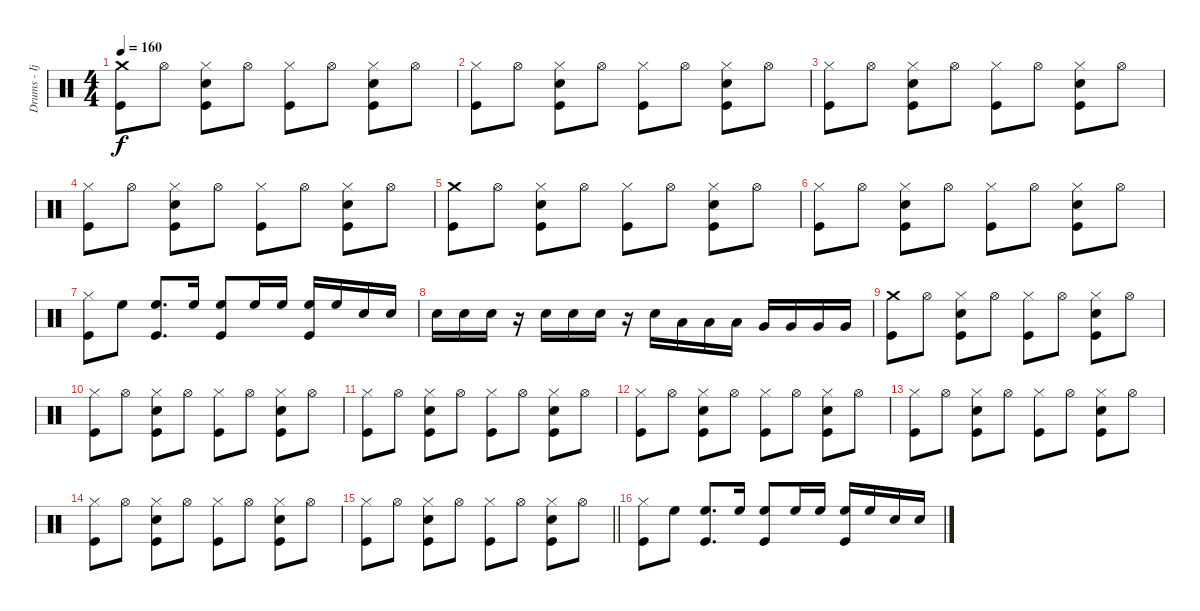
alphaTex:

\track ("Drums - Ijichi" "Drums - Ij") {instrument percussion}
\staff {score}
\articulation defaults
\ts (4 4)
\tempo 160
\clef neutral
\ks c
("Crash medium (hit)" "Kick (hit)").8{dy f} "Hi-Hat (open)".8 ("Hi-Hat (closed)" "Electric Snare (hit)" "Kick (hit)").8 "Hi-Hat (open)".8 ("Hi-Hat (closed)" "Kick (hit)").8 "Hi-Hat (open)".8 ("Hi-Hat (closed)" "Electric Snare (hit)" "Kick (hit)").8 "Hi-Hat (open)".8 |
("Hi-Hat (closed)" "Kick (hit)").8 "Hi-Hat (open)".8 ("Hi-Hat (closed)" "Electric Snare (hit)" "Kick (hit)").8 "Hi-Hat (open)".8 ("Hi-Hat (closed)" "Kick (hit)").8 "Hi-Hat (open)".8 ("Hi-Hat (closed)" "Electric Snare (hit)" "Kick (hit)").8 "Hi-Hat (open)".8 |
("Hi-Hat (closed)" "Kick (hit)").8 "Hi-Hat (open)".8 ("Hi-Hat (closed)" "Electric Snare (hit)" "Kick (hit)").8 "Hi-Hat (open)".8 ("Hi-Hat (closed)" "Kick (hit)").8 "Hi-Hat (open)".8 ("Hi-Hat (closed)" "Electric Snare (hit)" "Kick (hit)").8 "Hi-Hat (open)".8 |
("Hi-Hat (closed)" "Kick (hit)").8 "Hi-Hat (open)".8 ("Hi-Hat (closed)" "Electric Snare (hit)" "Kick (hit)").8 "Hi-Hat (open)".8 ("Hi-Hat (closed)" "Kick (hit)").8 "Hi-Hat (open)".8 ("Hi-Hat (closed)" "Electric Snare (hit)" "Kick (hit)").8 "Hi-Hat (open)".8 |
("Crash medium (hit)" "Kick (hit)").8 "Hi-Hat (open)".8 ("Hi-Hat (closed)" "Electric Snare (hit)" "Kick (hit)").8 "Hi-Hat (open)".8 ("Hi-Hat (closed)" "Kick (hit)").8 "Hi-Hat (open)".8 ("Hi-Hat (closed)" "Electric Snare (hit)" "Kick (hit)").8 "Hi-Hat (open)".8 |
("Hi-Hat (closed)" "Kick (hit)").8 "Hi-Hat (open)".8 ("Hi-Hat (closed)" "Electric Snare (hit)" "Kick (hit)").8 "Hi-Hat (open)".8 ("Hi-Hat (closed)" "Kick (hit)").8 "Hi-Hat (open)".8 ("Hi-Hat (closed)" "Electric Snare (hit)" "Kick (hit)").8 "Hi-Hat (open)".8 |
("Hi-Hat (closed)" "Kick (hit)").8 "High Floor Tom (hit)".8 ("High Floor Tom (hit)" "Kick (hit)").8{d} "High Floor Tom (hit)".16 ("High Floor Tom (hit)" "Kick (hit)").8 "High Floor Tom (hit)".16 "High Floor Tom (hit)".16 ("High Floor Tom (hit)" "Kick (hit)").16 "High Floor Tom (hit)".16 "Electric Snare (hit)".16 "Electric Snare (hit)".16 |
"Electric Snare (hit)".16 "Electric Snare (hit)".16 "Electric Snare (hit)".16 r.16 "Electric Snare (hit)".16 "Electric Snare (hit)".16 "Electric Snare (hit)".16 r.16 "Electric Snare (hit)".16 "Low Floor Tom (hit)".16 "Low Floor Tom (hit)".16 "Low Floor Tom (hit)".16 "Very Low Tom (hit)".16 "Very Low Tom (hit)".16 "Very Low Tom (hit)".16 "Very Low Tom (hit)".16 |
("Crash medium (hit)" "Kick (hit)").8 "Hi-Hat (open)".8 ("Hi-Hat (closed)" "Electric Snare (hit)" "Kick (hit)").8 "Hi-Hat (open)".8 ("Hi-Hat (closed)" "Kick (hit)").8 "Hi-Hat (open)".8 ("Hi-Hat (closed)" "Electric Snare (hit)" "Kick (hit)").8 "Hi-Hat (open)".8 |
("Hi-Hat (closed)" "Kick (hit)").8 "Hi-Hat (open)".8 ("Hi-Hat (closed)" "Electric Snare (hit)" "Kick (hit)").8 "Hi-Hat (open)".8 ("Hi-Hat (closed)" "Kick (hit)").8 "Hi-Hat (open)".8 ("Hi-Hat (closed)" "Electric Snare (hit)" "Kick (hit)").8 "Hi-Hat (open)".8 |
("Hi-Hat (closed)" "Kick (hit)").8 "Hi-Hat (open)".8 ("Hi-Hat (closed)" "Electric Snare (hit)" "Kick (hit)").8 "Hi-Hat (open)".8 ("Hi-Hat (closed)" "Kick (hit)").8 "Hi-Hat (open)".8 ("Hi-Hat (closed)" "Electric Snare (hit)" "Kick (hit)").8 "Hi-Hat (open)".8 |
("Hi-Hat (closed)" "Kick (hit)").8 "Hi-Hat (open)".8 ("Hi-Hat (closed)" "Electric Snare (hit)" "Kick (hit)").8 "Hi-Hat (open)".8 ("Hi-Hat (closed)" "Kick (hit)").8 "Hi-Hat (open)".8 ("Hi-Hat (closed)" "Electric Snare (hit)" "Kick (hit)").8 "Hi-Hat (open)".8 |
("Hi-Hat (closed)" "Kick (hit)").8 "Hi-Hat (open)".8 ("Hi-Hat (closed)" "Electric Snare (hit)" "Kick (hit)").8 "Hi-Hat (open)".8 ("Hi-Hat (closed)" "Kick (hit)").8 "Hi-Hat (open)".8 ("Hi-Hat (closed)" "Electric Snare (hit)" "Kick (hit)").8 "Hi-Hat (open)".8 |
("Hi-Hat (closed)" "Kick (hit)").8 "Hi-Hat (open)".8 ("Hi-Hat (closed)" "Electric Snare (hit)" "Kick (hit)").8 "Hi-Hat (open)".8 ("Hi-Hat (closed)" "Kick (hit)").8 "Hi-Hat (open)".8 ("Hi-Hat (closed)" "Electric Snare (hit)" "Kick (hit)").8 "Hi-Hat (open)".8 |
\barLineRight lightlight
("Hi-Hat (closed)" "Kick (hit)").8 "Hi-Hat (open)".8 ("Hi-Hat (closed)" "Electric Snare (hit)" "Kick (hit)").8 "Hi-Hat (open)".8 ("Hi-Hat (closed)" "Kick (hit)").8 "Hi-Hat (open)".8 ("Hi-Hat (closed)" "Electric Snare (hit)" "Kick (hit)").8 "Hi-Hat (open)".8 |
("Hi-Hat (closed)" "Kick (hit)").8 "High Floor Tom (hit)".8 ("High Floor Tom (hit)" "Kick (hit)").8{d} "High Floor Tom (hit)".16 ("High Floor Tom (hit)" "Kick (hit)").8 "High Floor Tom (hit)".16 "High Floor Tom (hit)".16 ("High Floor Tom (hit)" "Kick (hit)").16 "High Floor Tom (hit)".16 "Electric Snare (hit)".16 "Electric Snare (hit)".16
